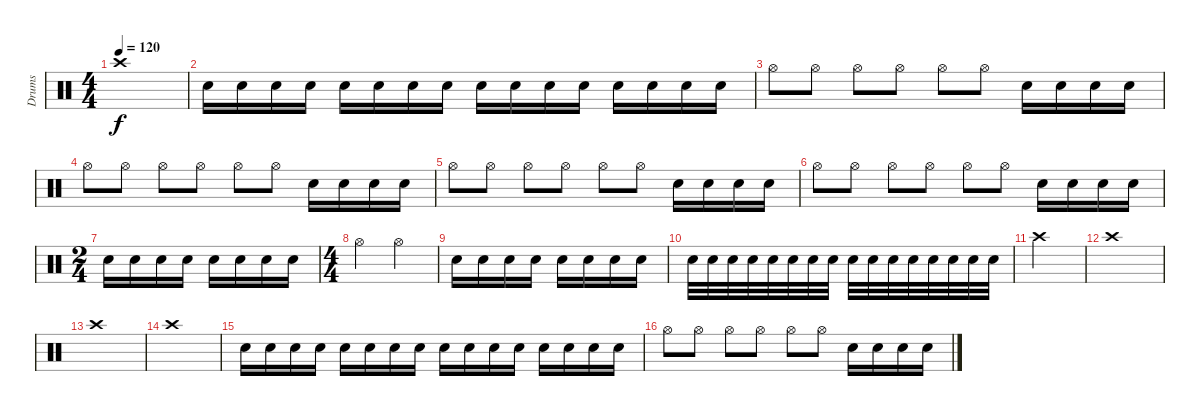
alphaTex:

\track ("Drums" "Drums") {instrument percussion}
\staff {score}
\articulation defaults
\ts (4 4)
\tempo 120
\clef neutral
\ks c "Crash high (hit)".1{dy f}
|
"Electric Snare (hit)".16 "Electric Snare (hit)".16 "Electric Snare (hit)".16 "Electric Snare (hit)".16 "Electric Snare (hit)".16 "Electric Snare (hit)".16 "Electric Snare (hit)".16 "Electric Snare (hit)".16 "Electric Snare (hit)".16 "Electric Snare (hit)".16 "Electric Snare (hit)".16 "Electric Snare (hit)".16 "Electric Snare (hit)".16 "Electric Snare (hit)".16 "Electric Snare (hit)".16 "Electric Snare (hit)".16 |
"Hi-Hat (open)".8 "Hi-Hat (open)".8 "Hi-Hat (open)".8 "Hi-Hat (open)".8 "Hi-Hat (open)".8 "Hi-Hat (open)".8 "Electric Snare (hit)".16 "Electric Snare (hit)".16 "Electric Snare (hit)".16 "Electric Snare (hit)".16 |
"Hi-Hat (open)".8 "Hi-Hat (open)".8 "Hi-Hat (open)".8 "Hi-Hat (open)".8 "Hi-Hat (open)".8 "Hi-Hat (open)".8 "Electric Snare (hit)".16 "Electric Snare (hit)".16 "Electric Snare (hit)".16 "Electric Snare (hit)".16 |
"Hi-Hat (open)".8 "Hi-Hat (open)".8 "Hi-Hat (open)".8 "Hi-Hat (open)".8 "Hi-Hat (open)".8 "Hi-Hat (open)".8 "Electric Snare (hit)".16 "Electric Snare (hit)".16 "Electric Snare (hit)".16 "Electric Snare (hit)".16 |
"Hi-Hat (open)".8 "Hi-Hat (open)".8 "Hi-Hat (open)".8 "Hi-Hat (open)".8 "Hi-Hat (open)".8 "Hi-Hat (open)".8 "Electric Snare (hit)".16 "Electric Snare (hit)".16 "Electric Snare (hit)".16 "Electric Snare (hit)".16 |
\ts (2 4)
"Electric Snare (hit)".16 "Electric Snare (hit)".16 "Electric Snare (hit)".16 "Electric Snare (hit)".16 "Electric Snare (hit)".16 "Electric Snare (hit)".16 "Electric Snare (hit)".16 "Electric Snare (hit)".16 |
\ts (4 4)
"Hi-Hat (open)".4 "Hi-Hat (open)".4 |
"Electric Snare (hit)".16 "Electric Snare (hit)".16 "Electric Snare (hit)".16 "Electric Snare (hit)".16 "Electric Snare (hit)".16 "Electric Snare (hit)".16 "Electric Snare (hit)".16 "Electric Snare (hit)".16 |
"Electric Snare (hit)".32 "Electric Snare (hit)".32 "Electric Snare (hit)".32 "Electric Snare (hit)".32 "Electric Snare (hit)".32 "Electric Snare (hit)".32 "Electric Snare (hit)".32 "Electric Snare (hit)".32 "Electric Snare (hit)".32 "Electric Snare (hit)".32 "Electric Snare (hit)".32 "Electric Snare (hit)".32 "Electric Snare (hit)".32 "Electric Snare (hit)".32 "Electric Snare (hit)".32 "Electric Snare (hit)".32 |
"Crash high (hit)".2 |
"Crash high (hit)".1 |
"Crash high (hit)".1 |
"Crash high (hit)".1 |
"Electric Snare (hit)".16 "Electric Snare (hit)".16 "Electric Snare (hit)".16 "Electric Snare (hit)".16 "Electric Snare (hit)".16 "Electric Snare (hit)".16 "Electric Snare (hit)".16 "Electric Snare (hit)".16 "Electric Snare (hit)".16 "Electric Snare (hit)".16 "Electric Snare (hit)".16 "Electric Snare (hit)".16 "Electric Snare (hit)".16 "Electric Snare (hit)".16 "Electric Snare (hit)".16 "Electric Snare (hit)".16 |
"Hi-Hat (open)".8 "Hi-Hat (open)".8 "Hi-Hat (open)".8 "Hi-Hat (open)".8 "Hi-Hat (open)".8 "Hi-Hat (open)".8 "Electric Snare (hit)".16 "Electric Snare (hit)".16 "Electric Snare (hit)".16 "Electric Snare (hit)".16
